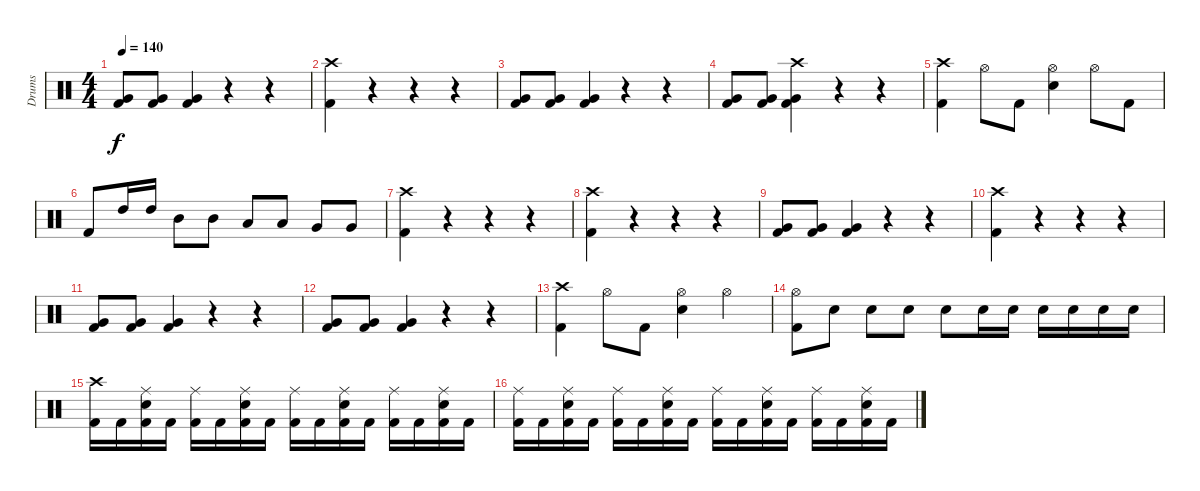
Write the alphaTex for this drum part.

\track ("Drums" "Drums") {instrument percussion}
\staff {score}
\articulation defaults
\ts (4 4)
\tempo 140
\clef neutral
\ks c
("Very Low Tom (hit)" "Kick (hit) 2").8{dy f} ("Very Low Tom (hit)" "Kick (hit) 2").8 ("Very Low Tom (hit)" "Kick (hit) 2").4 r.4 r.4 |
("Crash high (hit)" "Kick (hit) 2").4 r.4 r.4 r.4 |
("Very Low Tom (hit)" "Kick (hit) 2").8 ("Very Low Tom (hit)" "Kick (hit) 2").8 ("Very Low Tom (hit)" "Kick (hit) 2").4 r.4 r.4 |
("Very Low Tom (hit)" "Kick (hit) 2").8 ("Very Low Tom (hit)" "Kick (hit) 2").8 ("Crash high (hit)" "Very Low Tom (hit)" "Kick (hit) 2").4 r.4 r.4 |
("Crash high (hit)" "Kick (hit) 2").4 "Hi-Hat (open)".8 "Kick (hit) 2".8 ("Hi-Hat (open)" "Electric Snare (hit)").4 "Hi-Hat (open)".8 "Kick (hit) 2".8 |
"Kick (hit) 2".8 "High Tom (hit)".16 "High Tom (hit)".16 "Mid Tom (hit)".8 "Mid Tom (hit)".8 "Low Tom (hit)".8 "Low Tom (hit)".8 "Very Low Tom (hit)".8 "Very Low Tom (hit)".8 |
("Crash high (hit)" "Kick (hit) 2").4 r.4 r.4 r.4 |
("Crash high (hit)" "Kick (hit) 2").4 r.4 r.4 r.4 |
("Very Low Tom (hit)" "Kick (hit) 2").8 ("Very Low Tom (hit)" "Kick (hit) 2").8 ("Very Low Tom (hit)" "Kick (hit) 2").4 r.4 r.4 |
("Crash high (hit)" "Kick (hit) 2").4 r.4 r.4 r.4 |
("Very Low Tom (hit)" "Kick (hit) 2").8 ("Very Low Tom (hit)" "Kick (hit) 2").8 ("Very Low Tom (hit)" "Kick (hit) 2").4 r.4 r.4 |
("Very Low Tom (hit)" "Kick (hit) 2").8 ("Very Low Tom (hit)" "Kick (hit) 2").8 ("Very Low Tom (hit)" "Kick (hit) 2").4 r.4 r.4 |
("Crash high (hit)" "Kick (hit) 2").4 "Hi-Hat (open)".8 "Kick (hit) 2".8 ("Hi-Hat (open)" "Electric Snare (hit)").4 "Hi-Hat (open)".4 |
("Hi-Hat (open)" "Kick (hit) 2").8 "Electric Snare (hit)".8 "Electric Snare (hit)".8 "Electric Snare (hit)".8 "Electric Snare (hit)".8 "Electric Snare (hit)".16 "Electric Snare (hit)".16 "Electric Snare (hit)".16 "Electric Snare (hit)".16 "Electric Snare (hit)".16 "Electric Snare (hit)".16 |
("Crash high (hit)" "Kick (hit) 2").16 "Kick (hit) 2".16 ("Ride (middle)" "Electric Snare (hit)" "Kick (hit) 2").16 "Kick (hit) 2".16 ("Ride (middle)" "Kick (hit) 2").16 "Kick (hit) 2".16 ("Ride (middle)" "Electric Snare (hit)" "Kick (hit) 2").16 "Kick (hit) 2".16 ("Ride (middle)" "Kick (hit) 2").16 "Kick (hit) 2".16 ("Ride (middle)" "Electric Snare (hit)" "Kick (hit) 2").16 "Kick (hit) 2".16 ("Ride (middle)" "Kick (hit) 2").16 "Kick (hit) 2".16 ("Ride (middle)" "Electric Snare (hit)" "Kick (hit) 2").16 "Kick (hit) 2".16 |
("Ride (middle)" "Kick (hit) 2").16 "Kick (hit) 2".16 ("Ride (middle)" "Electric Snare (hit)" "Kick (hit) 2").16 "Kick (hit) 2".16 ("Ride (middle)" "Kick (hit) 2").16 "Kick (hit) 2".16 ("Ride (middle)" "Electric Snare (hit)" "Kick (hit) 2").16 "Kick (hit) 2".16 ("Ride (middle)" "Kick (hit) 2").16 "Kick (hit) 2".16 ("Ride (middle)" "Electric Snare (hit)" "Kick (hit) 2").16 "Kick (hit) 2".16 ("Ride (middle)" "Kick (hit) 2").16 "Kick (hit) 2".16 ("Ride (middle)" "Electric Snare (hit)" "Kick (hit) 2").16 "Kick (hit) 2".16
